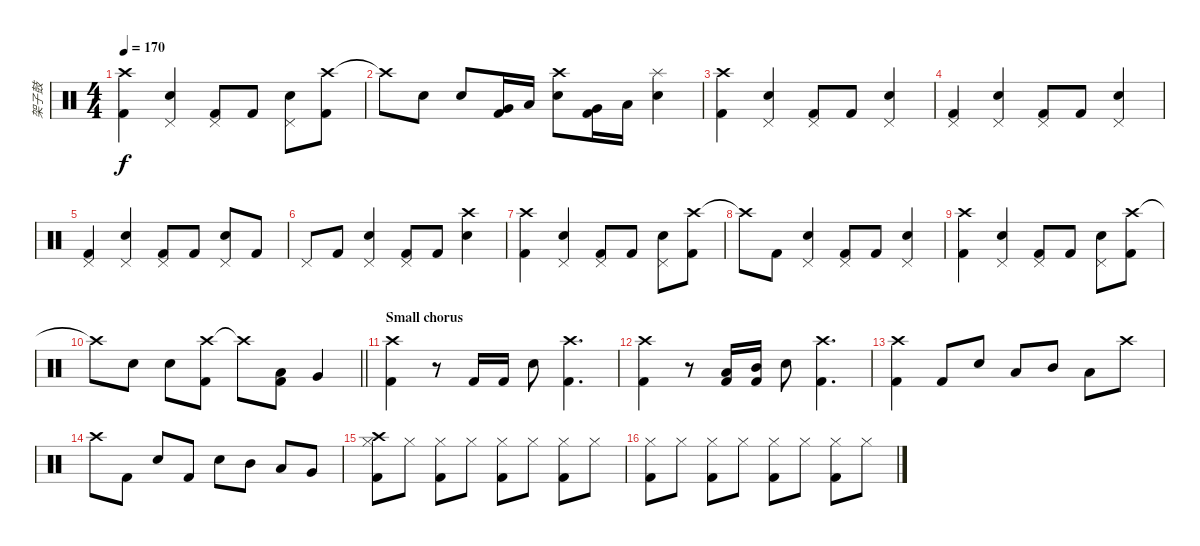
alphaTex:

\track ("架子鼓" "架子鼓") {instrument percussion}
\staff {score}
\articulation defaults
\ts (4 4)
\tempo 170
\clef neutral
\ks c
("Crash high (hit)" "Kick (hit) 2").4{dy f} ("Pedal Hi-Hat (hit)" "Snare (hit) 2").4 ("Pedal Hi-Hat (hit)" "Kick (hit) 2").8 "Kick (hit) 2".8 ("Pedal Hi-Hat (hit)" "Snare (hit) 2").8 ("Crash high (hit)" "Kick (hit) 2").8 |
"Crash high (hit)"{t}.8 "Snare (hit) 2".8 "Snare (hit) 2".8 ("Very Low Tom (hit)" "Kick (hit) 2").16 "Low Tom (hit)".16 ("Crash high (hit)" "Snare (hit) 2").8 ("Very Low Tom (hit)" "Kick (hit) 2").16 "Low Tom (hit)".16 ("Splash (hit)" "Snare (hit) 2").4 |
("Crash high (hit)" "Kick (hit) 2").4 ("Pedal Hi-Hat (hit)" "Snare (hit) 2").4 ("Pedal Hi-Hat (hit)" "Kick (hit) 2").8 "Kick (hit) 2".8 ("Pedal Hi-Hat (hit)" "Snare (hit) 2").4 |
("Pedal Hi-Hat (hit)" "Kick (hit) 2").4 ("Pedal Hi-Hat (hit)" "Snare (hit) 2").4 ("Pedal Hi-Hat (hit)" "Kick (hit) 2").8 "Kick (hit) 2".8 ("Pedal Hi-Hat (hit)" "Snare (hit) 2").4 |
("Pedal Hi-Hat (hit)" "Kick (hit) 2").4 ("Pedal Hi-Hat (hit)" "Snare (hit) 2").4 ("Pedal Hi-Hat (hit)" "Kick (hit) 2").8 "Kick (hit) 2".8 ("Pedal Hi-Hat (hit)" "Snare (hit) 2").8 "Kick (hit) 2".8 |
"Pedal Hi-Hat (hit)".8 "Kick (hit) 2".8 ("Pedal Hi-Hat (hit)" "Snare (hit) 2").4 ("Pedal Hi-Hat (hit)" "Kick (hit) 2").8 "Kick (hit) 2".8 ("Crash high (hit)" "Snare (hit) 2").4 |
("Crash high (hit)" "Kick (hit) 2").4 ("Pedal Hi-Hat (hit)" "Snare (hit) 2").4 ("Pedal Hi-Hat (hit)" "Kick (hit) 2").8 "Kick (hit) 2".8 ("Pedal Hi-Hat (hit)" "Snare (hit) 2").8 ("Crash high (hit)" "Kick (hit) 2").8 |
"Crash high (hit)"{t}.8 "Kick (hit) 2".8 ("Pedal Hi-Hat (hit)" "Snare (hit) 2").4 ("Pedal Hi-Hat (hit)" "Kick (hit) 2").8 "Kick (hit) 2".8 ("Pedal Hi-Hat (hit)" "Snare (hit) 2").4 |
("Crash high (hit)" "Kick (hit) 2").4 ("Pedal Hi-Hat (hit)" "Snare (hit) 2").4 ("Pedal Hi-Hat (hit)" "Kick (hit) 2").8 "Kick (hit) 2".8 ("Pedal Hi-Hat (hit)" "Snare (hit) 2").8 ("Crash high (hit)" "Kick (hit) 2").8 |
\barLineRight lightlight "Crash high (hit)"{t}.8 "Snare (hit) 2".8 "Snare (hit) 2".8
("Crash high (hit)" "Kick (hit) 2").8 "Crash high (hit)"{t}.8 ("Low Tom (hit)" "Kick (hit) 2").8 "Very Low Tom (hit)".4 |
\section ("" "Small chorus")
("Crash high (hit)" "Kick (hit) 2").4 r.8 "Kick (hit) 2".16 "Kick (hit) 2".16 "Snare (hit) 2".8 ("Crash high (hit)" "Kick (hit) 2").4{d} |
("Crash high (hit)" "Kick (hit) 2").4 r.8 ("Low Tom (hit)" "Kick (hit) 2").16 ("Mid Tom (hit)" "Kick (hit) 2").16 "Snare (hit) 2".8 ("Crash high (hit)" "Kick (hit) 2").4{d} |
("Crash high (hit)" "Kick (hit) 2").4 "Kick (hit) 2".8 "Snare (hit) 2".8 "Low Tom (hit)".8 "Mid Tom (hit)".8 "Low Tom (hit)".8 "Crash high (hit)".8 |
"Crash high (hit)".8 "Kick (hit) 2".8 "Snare (hit) 2".8 "Kick (hit) 2".8 "Snare (hit) 2".8 "Mid Tom (hit)".8 "Low Tom (hit)".8 "Very Low Tom (hit)".8 |
("Hi-Hat (closed)" "Crash high (hit)" "Kick (hit) 2").8 "Hi-Hat (closed)".8 ("Hi-Hat (closed)" "Kick (hit) 2").8 "Hi-Hat (closed)".8 ("Hi-Hat (closed)" "Kick (hit) 2").8 "Hi-Hat (closed)".8 ("Hi-Hat (closed)" "Kick (hit) 2").8 "Hi-Hat (closed)".8 |
("Hi-Hat (closed)" "Kick (hit) 2").8 "Hi-Hat (closed)".8 ("Hi-Hat (closed)" "Kick (hit) 2").8 "Hi-Hat (closed)".8 ("Hi-Hat (closed)" "Kick (hit) 2").8 "Hi-Hat (closed)".8 ("Hi-Hat (closed)" "Kick (hit) 2").8 "Hi-Hat (closed)".8
